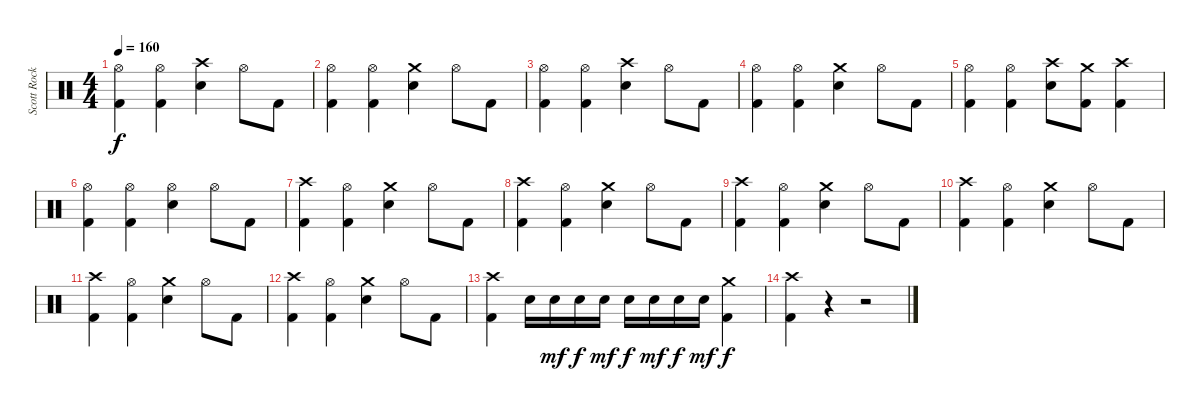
\track ("Scott Rockenfield" "Scott Rock") {instrument percussion}
\staff {score}
\articulation defaults
\ts (4 4)
\tempo 160
\clef neutral
\ks c
("Hi-Hat (open)" "Kick (hit) 2").4{dy f} ("Hi-Hat (open)" "Kick (hit) 2").4 ("Crash high (hit)" "Electric Snare (hit)").4 "Hi-Hat (open)".8 "Kick (hit) 2".8 |
("Hi-Hat (open)" "Kick (hit) 2").4 ("Hi-Hat (open)" "Kick (hit) 2").4 ("Crash medium (hit)" "Electric Snare (hit)").4 "Hi-Hat (open)".8 "Kick (hit) 2".8 |
("Hi-Hat (open)" "Kick (hit) 2").4 ("Hi-Hat (open)" "Kick (hit) 2").4 ("Crash high (hit)" "Electric Snare (hit)").4 "Hi-Hat (open)".8 "Kick (hit) 2".8 |
("Hi-Hat (open)" "Kick (hit) 2").4 ("Hi-Hat (open)" "Kick (hit) 2").4 ("Crash medium (hit)" "Electric Snare (hit)").4 "Hi-Hat (open)".8 "Kick (hit) 2".8 |
("Hi-Hat (open)" "Kick (hit) 2").4 ("Hi-Hat (open)" "Kick (hit) 2").4 ("Crash high (hit)" "Electric Snare (hit)").8 ("Crash medium (hit)" "Kick (hit) 2").8 ("Crash high (hit)" "Kick (hit) 2").4 |
("Hi-Hat (open)" "Kick (hit) 2").4 ("Hi-Hat (open)" "Kick (hit) 2").4 ("Hi-Hat (open)" "Electric Snare (hit)").4 "Hi-Hat (open)".8 "Kick (hit) 2".8 |
("Crash high (hit)" "Kick (hit) 2").4 ("Hi-Hat (open)" "Kick (hit) 2").4 ("Crash medium (hit)" "Electric Snare (hit)").4 "Hi-Hat (open)".8 "Kick (hit) 2".8 |
("Crash high (hit)" "Kick (hit) 2").4 ("Hi-Hat (open)" "Kick (hit) 2").4 ("Crash medium (hit)" "Electric Snare (hit)").4 "Hi-Hat (open)".8 "Kick (hit) 2".8 |
("Crash high (hit)" "Kick (hit) 2").4 ("Hi-Hat (open)" "Kick (hit) 2").4 ("Crash medium (hit)" "Electric Snare (hit)").4 "Hi-Hat (open)".8 "Kick (hit) 2".8 |
("Crash high (hit)" "Kick (hit) 2").4 ("Hi-Hat (open)" "Kick (hit) 2").4 ("Crash medium (hit)" "Electric Snare (hit)").4 "Hi-Hat (open)".8 "Kick (hit) 2".8 |
("Crash high (hit)" "Kick (hit) 2").4 ("Hi-Hat (open)" "Kick (hit) 2").4 ("Crash medium (hit)" "Electric Snare (hit)").4 "Hi-Hat (open)".8 "Kick (hit) 2".8 |
("Crash high (hit)" "Kick (hit) 2").4 ("Hi-Hat (open)" "Kick (hit) 2").4 ("Crash medium (hit)" "Electric Snare (hit)").4 "Hi-Hat (open)".8 "Kick (hit) 2".8 |
("Crash high (hit)" "Kick (hit) 2").4 "Electric Snare (hit)".16 "Electric Snare (hit)".16{dy mf} "Electric Snare (hit)".16{dy f} "Electric Snare (hit)".16{dy mf} "Electric Snare (hit)".16{dy f} "Electric Snare (hit)".16{dy mf} "Electric Snare (hit)".16{dy f} "Electric Snare (hit)".16{dy mf} ("Crash medium (hit)" "Kick (hit) 2").4{dy f} |
("Crash high (hit)" "Kick (hit) 2").4 r.4 r.2
